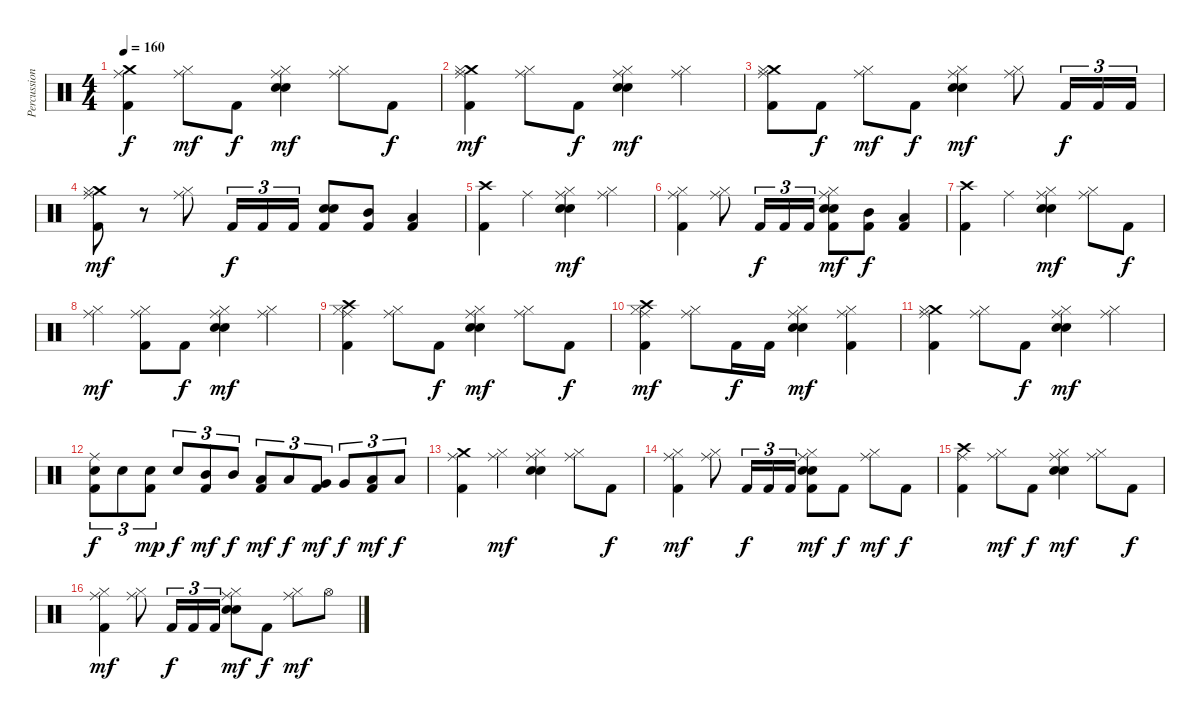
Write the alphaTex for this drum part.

\track ("Percussion" "Percussion") {instrument percussion}
\staff {score}
\articulation defaults
\ts (4 4)
\tempo 160
\clef neutral
\ks c
("Crash medium (hit)" "Ride (middle)" "Kick (hit) 2").4{dy f} ("Ride (middle)" "Hi-Hat (closed)").8{dy mf} "Kick (hit) 2".8{dy f} ("Ride (middle)" "Hi-Hat (closed)" "Snare (hit) 2" "Electric Snare (hit)").4{dy mf} ("Ride (middle)" "Hi-Hat (closed)").8 "Kick (hit) 2".8{dy f} |
("Crash medium (hit)" "Ride (middle)" "Hi-Hat (closed)" "Kick (hit) 2").4{dy mf} ("Ride (middle)" "Hi-Hat (closed)").8 "Kick (hit) 2".8{dy f} ("Ride (middle)" "Hi-Hat (closed)" "Snare (hit) 2" "Electric Snare (hit)").4{dy mf} ("Ride (middle)" "Hi-Hat (closed)").4 |
("Crash medium (hit)" "Ride (middle)" "Hi-Hat (closed)" "Kick (hit) 2").8 "Kick (hit) 2".8{dy f} ("Ride (middle)" "Hi-Hat (closed)").8{dy mf} "Kick (hit) 2".8{dy f} ("Ride (middle)" "Hi-Hat (closed)" "Snare (hit) 2" "Electric Snare (hit)").4{dy mf} ("Ride (middle)" "Hi-Hat (closed)").8 "Kick (hit) 2".16{tu (3 2) dy f} "Kick (hit) 2".16{tu (3 2)} "Kick (hit) 2".16{tu (3 2)} |
("Crash medium (hit)" "Ride (middle)" "Hi-Hat (closed)" "Kick (hit) 2").8{dy mf} r.8 ("Ride (middle)" "Hi-Hat (closed)").8 "Kick (hit) 2".16{tu (3 2) dy f} "Kick (hit) 2".16{tu (3 2)} "Kick (hit) 2".16{tu (3 2)} ("Snare (hit) 2" "Electric Snare (hit)" "Kick (hit) 2").8 ("Mid Tom (hit)" "Kick (hit) 2").8 ("Low Tom (hit)" "Kick (hit) 2").4 |
("Crash high (hit)" "Kick (hit) 2").4 "Ride (middle)".4 ("Ride (middle)" "Hi-Hat (closed)" "Snare (hit) 2" "Electric Snare (hit)").4{dy mf} ("Ride (middle)" "Hi-Hat (closed)").4 |
("Ride (middle)" "Hi-Hat (closed)" "Kick (hit) 2").4 ("Ride (middle)" "Hi-Hat (closed)").8 "Kick (hit) 2".16{tu (3 2) dy f} "Kick (hit) 2".16{tu (3 2)} "Kick (hit) 2".16{tu (3 2)} ("Ride (middle)" "Hi-Hat (closed)" "Snare (hit) 2" "Electric Snare (hit)" "Kick (hit) 2").8{dy mf} ("Mid Tom (hit)" "Kick (hit) 2").8{dy f} ("Low Tom (hit)" "Kick (hit) 2").4 |
("Crash high (hit)" "Kick (hit) 2").4 "Ride (middle)".4 ("Ride (middle)" "Hi-Hat (closed)" "Snare (hit) 2" "Electric Snare (hit)").4{dy mf} ("Ride (middle)" "Hi-Hat (closed)").8 "Kick (hit) 2".8{dy f} |
("Ride (middle)" "Hi-Hat (closed)").4{dy mf} ("Ride (middle)" "Hi-Hat (closed)" "Kick (hit) 2").8 "Kick (hit) 2".8{dy f} ("Ride (middle)" "Hi-Hat (closed)" "Snare (hit) 2" "Electric Snare (hit)").4{dy mf} ("Ride (middle)" "Hi-Hat (closed)").4 |
("Crash high (hit)" "Ride (middle)" "Hi-Hat (closed)" "Kick (hit) 2").4 ("Ride (middle)" "Hi-Hat (closed)").8 "Kick (hit) 2".8{dy f} ("Ride (middle)" "Hi-Hat (closed)" "Snare (hit) 2" "Electric Snare (hit)").4{dy mf} ("Ride (middle)" "Hi-Hat (closed)").8 "Kick (hit) 2".8{dy f} |
("Crash high (hit)" "Ride (middle)" "Hi-Hat (closed)" "Kick (hit) 2").4{dy mf} ("Ride (middle)" "Hi-Hat (closed)").8 "Kick (hit) 2".16{dy f} "Kick (hit) 2".16 ("Ride (middle)" "Hi-Hat (closed)" "Snare (hit) 2" "Electric Snare (hit)").4{dy mf} ("Ride (middle)" "Hi-Hat (closed)" "Kick (hit) 2").4 |
("Crash medium (hit)" "Ride (middle)" "Hi-Hat (closed)" "Kick (hit) 2").4 ("Ride (middle)" "Hi-Hat (closed)").8 "Kick (hit) 2".8{dy f} ("Ride (middle)" "Hi-Hat (closed)" "Snare (hit) 2" "Electric Snare (hit)").4{dy mf} ("Ride (middle)" "Hi-Hat (closed)").4 |
("Ride (middle)" "Snare (hit) 2" "Kick (hit) 2").8{tu (3 2) dy f} "Snare (hit) 2".8{tu (3 2)} ("Snare (hit) 2" "Kick (hit) 2").8{tu (3 2) dy mp} "Snare (hit) 2".8{tu (3 2) dy f} ("Mid Tom (hit)" "Kick (hit) 2").8{tu (3 2) dy mf} "Mid Tom (hit)".8{tu (3 2) dy f} ("Low Tom (hit)" "Kick (hit) 2").8{tu (3 2) dy mf} "Low Tom (hit)".8{tu (3 2) dy f} ("Very Low Tom (hit)" "Kick (hit) 2").8{tu (3 2) dy mf} "Very Low Tom (hit)".8{tu (3 2) dy f} ("Low Floor Tom (hit)" "Kick (hit) 2").8{tu (3 2) dy mf} "Low Floor Tom (hit)".8{tu (3 2) dy f} |
("Crash medium (hit)" "Ride (middle)" "Kick (hit) 2").4 ("Ride (middle)" "Hi-Hat (closed)").4{dy mf} ("Ride (middle)" "Hi-Hat (closed)" "Snare (hit) 2" "Electric Snare (hit)").4 ("Ride (middle)" "Hi-Hat (closed)").8 "Kick (hit) 2".8{dy f} |
("Ride (middle)" "Hi-Hat (closed)" "Kick (hit) 2").4{dy mf} ("Ride (middle)" "Hi-Hat (closed)").8 "Kick (hit) 2".16{tu (3 2) dy f} "Kick (hit) 2".16{tu (3 2)} "Kick (hit) 2".16{tu (3 2)} ("Ride (middle)" "Hi-Hat (closed)" "Snare (hit) 2" "Electric Snare (hit)" "Kick (hit) 2").8{dy mf} "Kick (hit) 2".8{dy f} ("Ride (middle)" "Hi-Hat (closed)").8{dy mf} "Kick (hit) 2".8{dy f} |
("Crash high (hit)" "Ride (middle)" "Kick (hit) 2").4 ("Ride (middle)" "Hi-Hat (closed)").8{dy mf} "Kick (hit) 2".8{dy f} ("Ride (middle)" "Hi-Hat (closed)" "Snare (hit) 2" "Electric Snare (hit)").4{dy mf} ("Ride (middle)" "Hi-Hat (closed)").8 "Kick (hit) 2".8{dy f} |
("Ride (middle)" "Hi-Hat (closed)" "Kick (hit) 2").4{dy mf} ("Ride (middle)" "Hi-Hat (closed)").8 "Kick (hit) 2".16{tu (3 2) dy f} "Kick (hit) 2".16{tu (3 2)} "Kick (hit) 2".16{tu (3 2)} ("Ride (middle)" "Hi-Hat (closed)" "Snare (hit) 2" "Electric Snare (hit)").8{dy mf} "Kick (hit) 2".8{dy f} ("Ride (middle)" "Hi-Hat (closed)").8{dy mf} "Hi-Hat (open)".8
